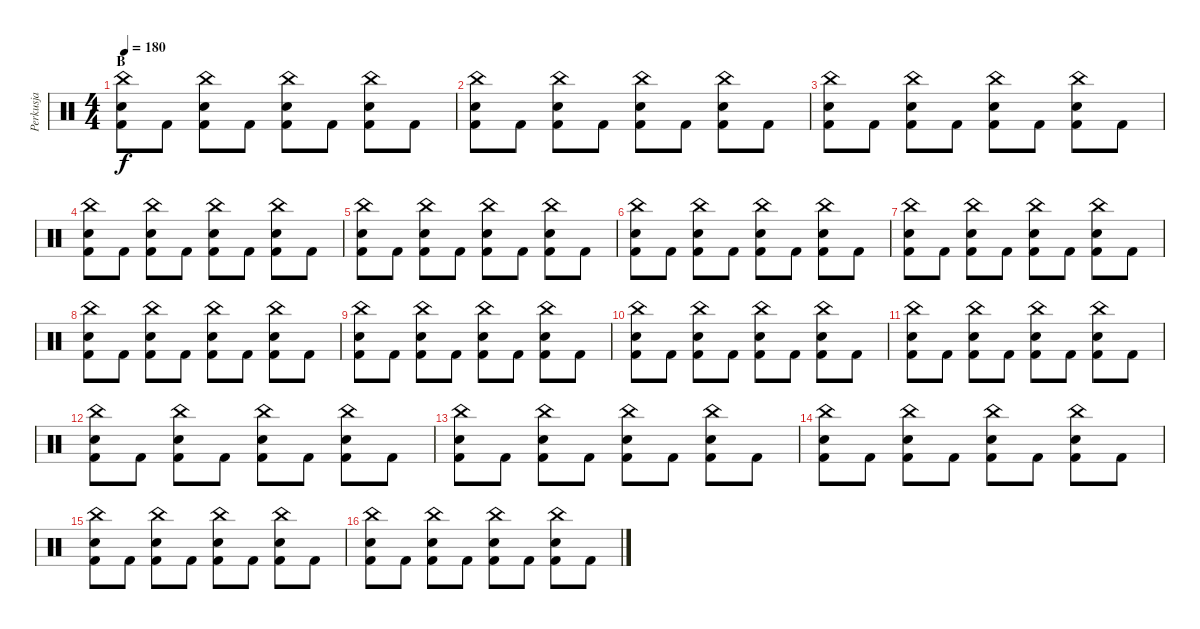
\track ("Perkusja" "Perkusja") {instrument percussion}
\staff {score}
\articulation defaults
\ts (4 4)
\section ("" "B")
\tempo 180
\clef neutral
\ks c
("China (hit)" "Snare (hit) 2" "Kick (hit) 2").8{dy f} "Kick (hit) 2".8 ("China (hit)" "Snare (hit) 2" "Kick (hit) 2").8 "Kick (hit) 2".8 ("China (hit)" "Snare (hit) 2" "Kick (hit) 2").8 "Kick (hit) 2".8 ("China (hit)" "Snare (hit) 2" "Kick (hit) 2").8 "Kick (hit) 2".8 |
("China (hit)" "Snare (hit) 2" "Kick (hit) 2").8 "Kick (hit) 2".8 ("China (hit)" "Snare (hit) 2" "Kick (hit) 2").8 "Kick (hit) 2".8 ("China (hit)" "Snare (hit) 2" "Kick (hit) 2").8 "Kick (hit) 2".8 ("China (hit)" "Snare (hit) 2" "Kick (hit) 2").8 "Kick (hit) 2".8 |
("China (hit)" "Snare (hit) 2" "Kick (hit) 2").8 "Kick (hit) 2".8 ("China (hit)" "Snare (hit) 2" "Kick (hit) 2").8 "Kick (hit) 2".8 ("China (hit)" "Snare (hit) 2" "Kick (hit) 2").8 "Kick (hit) 2".8 ("China (hit)" "Snare (hit) 2" "Kick (hit) 2").8 "Kick (hit) 2".8 |
("China (hit)" "Snare (hit) 2" "Kick (hit) 2").8 "Kick (hit) 2".8 ("China (hit)" "Snare (hit) 2" "Kick (hit) 2").8 "Kick (hit) 2".8 ("China (hit)" "Snare (hit) 2" "Kick (hit) 2").8 "Kick (hit) 2".8 ("China (hit)" "Snare (hit) 2" "Kick (hit) 2").8 "Kick (hit) 2".8 |
("China (hit)" "Snare (hit) 2" "Kick (hit) 2").8 "Kick (hit) 2".8 ("China (hit)" "Snare (hit) 2" "Kick (hit) 2").8 "Kick (hit) 2".8 ("China (hit)" "Snare (hit) 2" "Kick (hit) 2").8 "Kick (hit) 2".8 ("China (hit)" "Snare (hit) 2" "Kick (hit) 2").8 "Kick (hit) 2".8 |
("China (hit)" "Snare (hit) 2" "Kick (hit) 2").8 "Kick (hit) 2".8 ("China (hit)" "Snare (hit) 2" "Kick (hit) 2").8 "Kick (hit) 2".8 ("China (hit)" "Snare (hit) 2" "Kick (hit) 2").8 "Kick (hit) 2".8 ("China (hit)" "Snare (hit) 2" "Kick (hit) 2").8 "Kick (hit) 2".8 |
("China (hit)" "Snare (hit) 2" "Kick (hit) 2").8 "Kick (hit) 2".8 ("China (hit)" "Snare (hit) 2" "Kick (hit) 2").8 "Kick (hit) 2".8 ("China (hit)" "Snare (hit) 2" "Kick (hit) 2").8 "Kick (hit) 2".8 ("China (hit)" "Snare (hit) 2" "Kick (hit) 2").8 "Kick (hit) 2".8 |
("China (hit)" "Snare (hit) 2" "Kick (hit) 2").8 "Kick (hit) 2".8 ("China (hit)" "Snare (hit) 2" "Kick (hit) 2").8 "Kick (hit) 2".8 ("China (hit)" "Snare (hit) 2" "Kick (hit) 2").8 "Kick (hit) 2".8 ("China (hit)" "Snare (hit) 2" "Kick (hit) 2").8 "Kick (hit) 2".8 |
("China (hit)" "Snare (hit) 2" "Kick (hit) 2").8 "Kick (hit) 2".8 ("China (hit)" "Snare (hit) 2" "Kick (hit) 2").8 "Kick (hit) 2".8 ("China (hit)" "Snare (hit) 2" "Kick (hit) 2").8 "Kick (hit) 2".8 ("China (hit)" "Snare (hit) 2" "Kick (hit) 2").8 "Kick (hit) 2".8 |
("China (hit)" "Snare (hit) 2" "Kick (hit) 2").8 "Kick (hit) 2".8 ("China (hit)" "Snare (hit) 2" "Kick (hit) 2").8 "Kick (hit) 2".8 ("China (hit)" "Snare (hit) 2" "Kick (hit) 2").8 "Kick (hit) 2".8 ("China (hit)" "Snare (hit) 2" "Kick (hit) 2").8 "Kick (hit) 2".8 |
("China (hit)" "Snare (hit) 2" "Kick (hit) 2").8 "Kick (hit) 2".8 ("China (hit)" "Snare (hit) 2" "Kick (hit) 2").8 "Kick (hit) 2".8 ("China (hit)" "Snare (hit) 2" "Kick (hit) 2").8 "Kick (hit) 2".8 ("China (hit)" "Snare (hit) 2" "Kick (hit) 2").8 "Kick (hit) 2".8 |
("China (hit)" "Snare (hit) 2" "Kick (hit) 2").8 "Kick (hit) 2".8 ("China (hit)" "Snare (hit) 2" "Kick (hit) 2").8 "Kick (hit) 2".8 ("China (hit)" "Snare (hit) 2" "Kick (hit) 2").8 "Kick (hit) 2".8 ("China (hit)" "Snare (hit) 2" "Kick (hit) 2").8 "Kick (hit) 2".8 |
("China (hit)" "Snare (hit) 2" "Kick (hit) 2").8 "Kick (hit) 2".8 ("China (hit)" "Snare (hit) 2" "Kick (hit) 2").8 "Kick (hit) 2".8 ("China (hit)" "Snare (hit) 2" "Kick (hit) 2").8 "Kick (hit) 2".8 ("China (hit)" "Snare (hit) 2" "Kick (hit) 2").8 "Kick (hit) 2".8 |
("China (hit)" "Snare (hit) 2" "Kick (hit) 2").8 "Kick (hit) 2".8 ("China (hit)" "Snare (hit) 2" "Kick (hit) 2").8 "Kick (hit) 2".8 ("China (hit)" "Snare (hit) 2" "Kick (hit) 2").8 "Kick (hit) 2".8 ("China (hit)" "Snare (hit) 2" "Kick (hit) 2").8 "Kick (hit) 2".8 |
("China (hit)" "Snare (hit) 2" "Kick (hit) 2").8 "Kick (hit) 2".8 ("China (hit)" "Snare (hit) 2" "Kick (hit) 2").8 "Kick (hit) 2".8 ("China (hit)" "Snare (hit) 2" "Kick (hit) 2").8 "Kick (hit) 2".8 ("China (hit)" "Snare (hit) 2" "Kick (hit) 2").8 "Kick (hit) 2".8 |
("China (hit)" "Snare (hit) 2" "Kick (hit) 2").8 "Kick (hit) 2".8 ("China (hit)" "Snare (hit) 2" "Kick (hit) 2").8 "Kick (hit) 2".8 ("China (hit)" "Snare (hit) 2" "Kick (hit) 2").8 "Kick (hit) 2".8 ("China (hit)" "Snare (hit) 2" "Kick (hit) 2").8 "Kick (hit) 2".8
